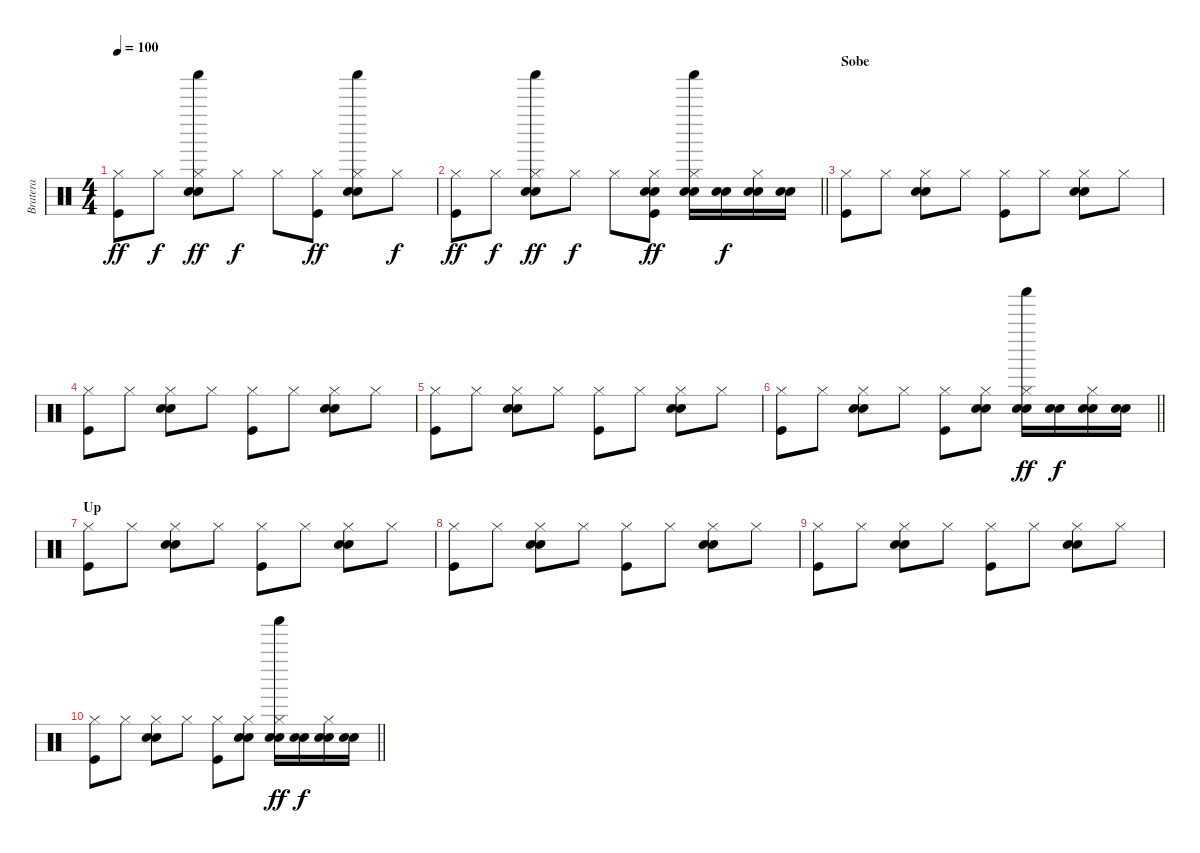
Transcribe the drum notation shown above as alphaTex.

\track ("Bratera" "Bratera") {instrument percussion}
\staff {score}
\articulation defaults
\ts (4 4)
\tempo 100
\clef neutral
\ks c
("Hi-Hat (closed)" "Kick (hit)").8{dy ff} "Hi-Hat (closed)".8{dy f} ("Hi-Hat (closed)" "Shaker (hit)" "Snare (hit) 2" "Electric Snare (hit)").8{dy ff} "Hi-Hat (closed)".8{dy f} "Hi-Hat (closed)".8 ("Hi-Hat (closed)" "Kick (hit)").8{dy ff} ("Hi-Hat (closed)" "Shaker (hit)" "Snare (hit) 2" "Electric Snare (hit)").8 "Hi-Hat (closed)".8{dy f} |
\barLineRight lightlight
("Hi-Hat (closed)" "Kick (hit)").8{dy ff} "Hi-Hat (closed)".8{dy f} ("Hi-Hat (closed)" "Shaker (hit)" "Snare (hit) 2" "Electric Snare (hit)").8{dy ff} "Hi-Hat (closed)".8{dy f} "Hi-Hat (closed)".8 ("Hi-Hat (closed)" "Snare (hit) 2" "Electric Snare (hit)" "Kick (hit)").8{dy ff} ("Hi-Hat (closed)" "Shaker (hit)" "Snare (hit) 2" "Electric Snare (hit)").16 ("Snare (hit) 2" "Electric Snare (hit)").16{dy f} ("Hi-Hat (closed)" "Snare (hit) 2" "Electric Snare (hit)").16 ("Snare (hit) 2" "Electric Snare (hit)").16 |
\section ("" "Sobe")
("Hi-Hat (closed)" "Kick (hit)").8 "Hi-Hat (closed)".8 ("Hi-Hat (closed)" "Snare (hit) 2" "Electric Snare (hit)").8 "Hi-Hat (closed)".8 ("Hi-Hat (closed)" "Kick (hit)").8 "Hi-Hat (closed)".8 ("Hi-Hat (closed)" "Snare (hit) 2" "Electric Snare (hit)").8 "Hi-Hat (closed)".8 |
("Hi-Hat (closed)" "Kick (hit)").8 "Hi-Hat (closed)".8 ("Hi-Hat (closed)" "Snare (hit) 2" "Electric Snare (hit)").8 "Hi-Hat (closed)".8 ("Hi-Hat (closed)" "Kick (hit)").8 "Hi-Hat (closed)".8 ("Hi-Hat (closed)" "Snare (hit) 2" "Electric Snare (hit)").8 "Hi-Hat (closed)".8 |
("Hi-Hat (closed)" "Kick (hit)").8 "Hi-Hat (closed)".8 ("Hi-Hat (closed)" "Snare (hit) 2" "Electric Snare (hit)").8 "Hi-Hat (closed)".8 ("Hi-Hat (closed)" "Kick (hit)").8 "Hi-Hat (closed)".8 ("Hi-Hat (closed)" "Snare (hit) 2" "Electric Snare (hit)").8 "Hi-Hat (closed)".8 |
\barLineRight lightlight
("Hi-Hat (closed)" "Kick (hit)").8 "Hi-Hat (closed)".8 ("Hi-Hat (closed)" "Snare (hit) 2" "Electric Snare (hit)").8 "Hi-Hat (closed)".8 ("Hi-Hat (closed)" "Kick (hit)").8 ("Hi-Hat (closed)" "Snare (hit) 2" "Electric Snare (hit)").8 ("Hi-Hat (closed)" "Shaker (hit)" "Snare (hit) 2" "Electric Snare (hit)").16{dy ff} ("Snare (hit) 2" "Electric Snare (hit)").16{dy f} ("Hi-Hat (closed)" "Snare (hit) 2" "Electric Snare (hit)").16 ("Snare (hit) 2" "Electric Snare (hit)").16 |
\section ("" "Up")
("Hi-Hat (closed)" "Kick (hit)").8 "Hi-Hat (closed)".8 ("Hi-Hat (closed)" "Snare (hit) 2" "Electric Snare (hit)").8 "Hi-Hat (closed)".8 ("Hi-Hat (closed)" "Kick (hit)").8 "Hi-Hat (closed)".8 ("Hi-Hat (closed)" "Snare (hit) 2" "Electric Snare (hit)").8 "Hi-Hat (closed)".8 |
("Hi-Hat (closed)" "Kick (hit)").8 "Hi-Hat (closed)".8 ("Hi-Hat (closed)" "Snare (hit) 2" "Electric Snare (hit)").8 "Hi-Hat (closed)".8 ("Hi-Hat (closed)" "Kick (hit)").8 "Hi-Hat (closed)".8 ("Hi-Hat (closed)" "Snare (hit) 2" "Electric Snare (hit)").8 "Hi-Hat (closed)".8 |
("Hi-Hat (closed)" "Kick (hit)").8 "Hi-Hat (closed)".8 ("Hi-Hat (closed)" "Snare (hit) 2" "Electric Snare (hit)").8 "Hi-Hat (closed)".8 ("Hi-Hat (closed)" "Kick (hit)").8 "Hi-Hat (closed)".8 ("Hi-Hat (closed)" "Snare (hit) 2" "Electric Snare (hit)").8 "Hi-Hat (closed)".8 |
\barLineRight lightlight
("Hi-Hat (closed)" "Kick (hit)").8 "Hi-Hat (closed)".8 ("Hi-Hat (closed)" "Snare (hit) 2" "Electric Snare (hit)").8 "Hi-Hat (closed)".8 ("Hi-Hat (closed)" "Kick (hit)").8 ("Hi-Hat (closed)" "Snare (hit) 2" "Electric Snare (hit)").8 ("Hi-Hat (closed)" "Shaker (hit)" "Snare (hit) 2" "Electric Snare (hit)").16{dy ff} ("Snare (hit) 2" "Electric Snare (hit)").16{dy f} ("Hi-Hat (closed)" "Snare (hit) 2" "Electric Snare (hit)").16 ("Snare (hit) 2" "Electric Snare (hit)").16
